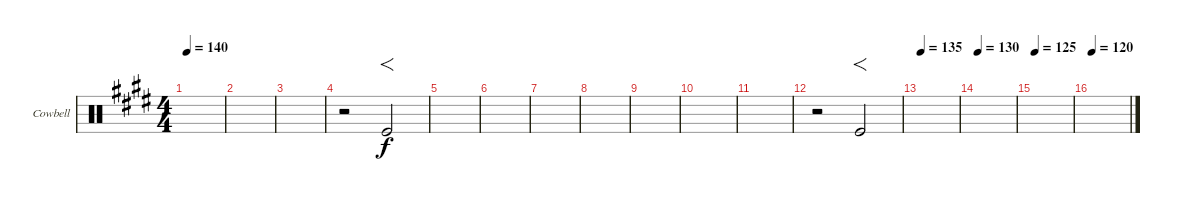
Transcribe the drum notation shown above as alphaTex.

\defaultSystemsLayout 4
\bracketExtendMode groupsimilarinstruments
\firstSystemTrackNameOrientation horizontal
\otherSystemsTrackNameOrientation horizontal
\track ("Cowbell" "Cowbell") {instrument percussion}
\staff {score}
\articulation defaults
\ts (4 4)
\tempo 140
\clef neutral
\ks e
|
|
|
r.2 "Kick (hit)".2{f} |
|
|
|
|
|
|
|
r.2 "Kick (hit)".2{f} |
\tempo 135
|
\tempo 130
|
\tempo 125
|
\tempo 120
